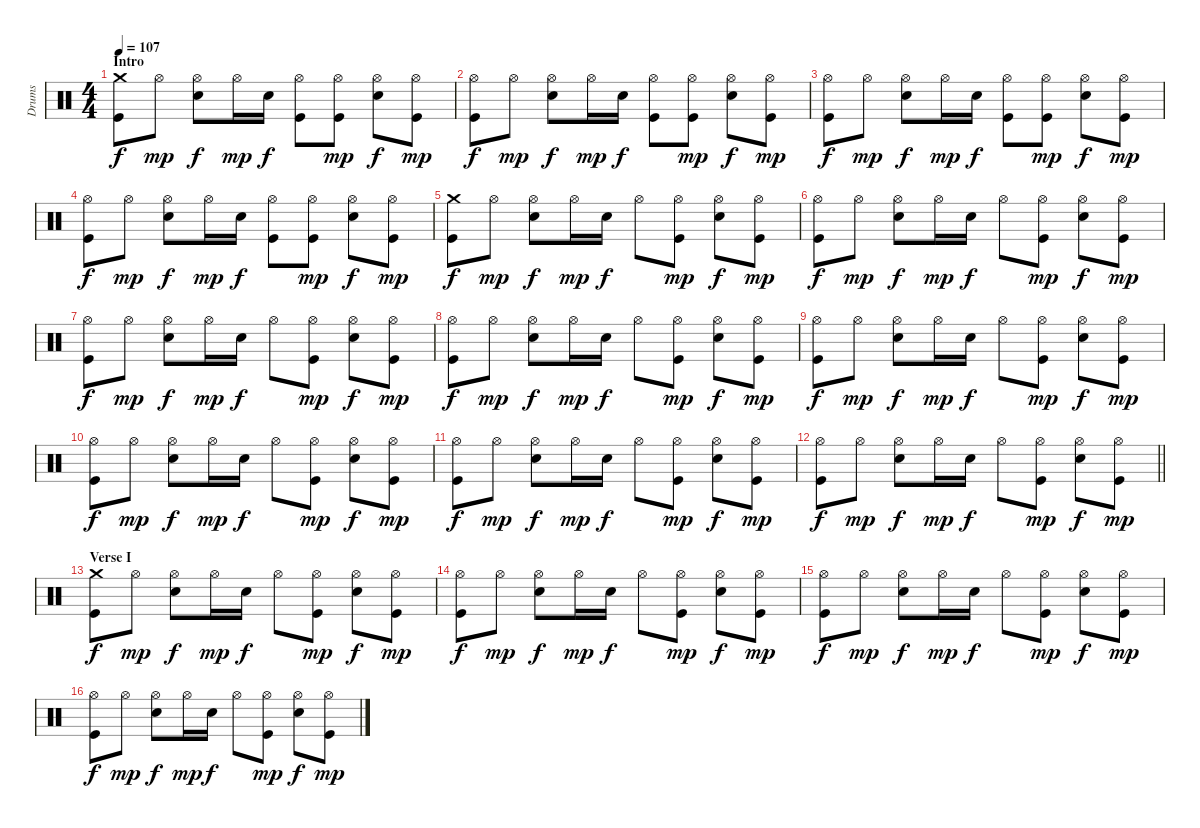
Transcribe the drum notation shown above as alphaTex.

\track ("Drums" "Drums") {instrument percussion}
\staff {score}
\articulation defaults
\ts (4 4)
\section ("" "Intro")
\tempo 107
\clef neutral
\ks c
("Crash medium (hit)" "Kick (hit)").8{dy f} "Hi-Hat (open)".8{dy mp} ("Hi-Hat (open)" "Electric Snare (hit)").8{dy f} "Hi-Hat (open)".16{dy mp} "Electric Snare (hit)".16{dy f} ("Hi-Hat (open)" "Kick (hit)").8 ("Hi-Hat (open)" "Kick (hit)").8{dy mp} ("Hi-Hat (open)" "Electric Snare (hit)").8{dy f} ("Hi-Hat (open)" "Kick (hit)").8{dy mp} |
("Hi-Hat (open)" "Kick (hit)").8{dy f} "Hi-Hat (open)".8{dy mp} ("Hi-Hat (open)" "Electric Snare (hit)").8{dy f} "Hi-Hat (open)".16{dy mp} "Electric Snare (hit)".16{dy f} ("Hi-Hat (open)" "Kick (hit)").8 ("Hi-Hat (open)" "Kick (hit)").8{dy mp} ("Hi-Hat (open)" "Electric Snare (hit)").8{dy f} ("Hi-Hat (open)" "Kick (hit)").8{dy mp} |
("Hi-Hat (open)" "Kick (hit)").8{dy f} "Hi-Hat (open)".8{dy mp} ("Hi-Hat (open)" "Electric Snare (hit)").8{dy f} "Hi-Hat (open)".16{dy mp} "Electric Snare (hit)".16{dy f} ("Hi-Hat (open)" "Kick (hit)").8 ("Hi-Hat (open)" "Kick (hit)").8{dy mp} ("Hi-Hat (open)" "Electric Snare (hit)").8{dy f} ("Hi-Hat (open)" "Kick (hit)").8{dy mp} |
("Hi-Hat (open)" "Kick (hit)").8{dy f} "Hi-Hat (open)".8{dy mp} ("Hi-Hat (open)" "Electric Snare (hit)").8{dy f} "Hi-Hat (open)".16{dy mp} "Electric Snare (hit)".16{dy f} ("Hi-Hat (open)" "Kick (hit)").8 ("Hi-Hat (open)" "Kick (hit)").8{dy mp} ("Hi-Hat (open)" "Electric Snare (hit)").8{dy f} ("Hi-Hat (open)" "Kick (hit)").8{dy mp} |
("Crash medium (hit)" "Kick (hit)").8{dy f} "Hi-Hat (open)".8{dy mp} ("Hi-Hat (open)" "Electric Snare (hit)").8{dy f} "Hi-Hat (open)".16{dy mp} "Electric Snare (hit)".16{dy f} "Hi-Hat (open)".8 ("Hi-Hat (open)" "Kick (hit)").8{dy mp} ("Hi-Hat (open)" "Electric Snare (hit)").8{dy f} ("Hi-Hat (open)" "Kick (hit)").8{dy mp} |
("Hi-Hat (open)" "Kick (hit)").8{dy f} "Hi-Hat (open)".8{dy mp} ("Hi-Hat (open)" "Electric Snare (hit)").8{dy f} "Hi-Hat (open)".16{dy mp} "Electric Snare (hit)".16{dy f} "Hi-Hat (open)".8 ("Hi-Hat (open)" "Kick (hit)").8{dy mp} ("Hi-Hat (open)" "Electric Snare (hit)").8{dy f} ("Hi-Hat (open)" "Kick (hit)").8{dy mp} |
("Hi-Hat (open)" "Kick (hit)").8{dy f} "Hi-Hat (open)".8{dy mp} ("Hi-Hat (open)" "Electric Snare (hit)").8{dy f} "Hi-Hat (open)".16{dy mp} "Electric Snare (hit)".16{dy f} "Hi-Hat (open)".8 ("Hi-Hat (open)" "Kick (hit)").8{dy mp} ("Hi-Hat (open)" "Electric Snare (hit)").8{dy f} ("Hi-Hat (open)" "Kick (hit)").8{dy mp} |
("Hi-Hat (open)" "Kick (hit)").8{dy f} "Hi-Hat (open)".8{dy mp} ("Hi-Hat (open)" "Electric Snare (hit)").8{dy f} "Hi-Hat (open)".16{dy mp} "Electric Snare (hit)".16{dy f} "Hi-Hat (open)".8 ("Hi-Hat (open)" "Kick (hit)").8{dy mp} ("Hi-Hat (open)" "Electric Snare (hit)").8{dy f} ("Hi-Hat (open)" "Kick (hit)").8{dy mp} |
("Hi-Hat (open)" "Kick (hit)").8{dy f} "Hi-Hat (open)".8{dy mp} ("Hi-Hat (open)" "Electric Snare (hit)").8{dy f} "Hi-Hat (open)".16{dy mp} "Electric Snare (hit)".16{dy f} "Hi-Hat (open)".8 ("Hi-Hat (open)" "Kick (hit)").8{dy mp} ("Hi-Hat (open)" "Electric Snare (hit)").8{dy f} ("Hi-Hat (open)" "Kick (hit)").8{dy mp} |
("Hi-Hat (open)" "Kick (hit)").8{dy f} "Hi-Hat (open)".8{dy mp} ("Hi-Hat (open)" "Electric Snare (hit)").8{dy f} "Hi-Hat (open)".16{dy mp} "Electric Snare (hit)".16{dy f} "Hi-Hat (open)".8 ("Hi-Hat (open)" "Kick (hit)").8{dy mp} ("Hi-Hat (open)" "Electric Snare (hit)").8{dy f} ("Hi-Hat (open)" "Kick (hit)").8{dy mp} |
("Hi-Hat (open)" "Kick (hit)").8{dy f} "Hi-Hat (open)".8{dy mp} ("Hi-Hat (open)" "Electric Snare (hit)").8{dy f} "Hi-Hat (open)".16{dy mp} "Electric Snare (hit)".16{dy f} "Hi-Hat (open)".8 ("Hi-Hat (open)" "Kick (hit)").8{dy mp} ("Hi-Hat (open)" "Electric Snare (hit)").8{dy f} ("Hi-Hat (open)" "Kick (hit)").8{dy mp} |
\barLineRight lightlight
("Hi-Hat (open)" "Kick (hit)").8{dy f} "Hi-Hat (open)".8{dy mp} ("Hi-Hat (open)" "Electric Snare (hit)").8{dy f} "Hi-Hat (open)".16{dy mp} "Electric Snare (hit)".16{dy f} "Hi-Hat (open)".8 ("Hi-Hat (open)" "Kick (hit)").8{dy mp} ("Hi-Hat (open)" "Electric Snare (hit)").8{dy f} ("Hi-Hat (open)" "Kick (hit)").8{dy mp} |
\section ("" "Verse I")
("Crash medium (hit)" "Kick (hit)").8{dy f} "Hi-Hat (open)".8{dy mp} ("Hi-Hat (open)" "Electric Snare (hit)").8{dy f} "Hi-Hat (open)".16{dy mp} "Electric Snare (hit)".16{dy f} "Hi-Hat (open)".8 ("Hi-Hat (open)" "Kick (hit)").8{dy mp} ("Hi-Hat (open)" "Electric Snare (hit)").8{dy f} ("Hi-Hat (open)" "Kick (hit)").8{dy mp} |
("Hi-Hat (open)" "Kick (hit)").8{dy f} "Hi-Hat (open)".8{dy mp} ("Hi-Hat (open)" "Electric Snare (hit)").8{dy f} "Hi-Hat (open)".16{dy mp} "Electric Snare (hit)".16{dy f} "Hi-Hat (open)".8 ("Hi-Hat (open)" "Kick (hit)").8{dy mp} ("Hi-Hat (open)" "Electric Snare (hit)").8{dy f} ("Hi-Hat (open)" "Kick (hit)").8{dy mp} |
("Hi-Hat (open)" "Kick (hit)").8{dy f} "Hi-Hat (open)".8{dy mp} ("Hi-Hat (open)" "Electric Snare (hit)").8{dy f} "Hi-Hat (open)".16{dy mp} "Electric Snare (hit)".16{dy f} "Hi-Hat (open)".8 ("Hi-Hat (open)" "Kick (hit)").8{dy mp} ("Hi-Hat (open)" "Electric Snare (hit)").8{dy f} ("Hi-Hat (open)" "Kick (hit)").8{dy mp} |
("Hi-Hat (open)" "Kick (hit)").8{dy f} "Hi-Hat (open)".8{dy mp} ("Hi-Hat (open)" "Electric Snare (hit)").8{dy f} "Hi-Hat (open)".16{dy mp} "Electric Snare (hit)".16{dy f} "Hi-Hat (open)".8 ("Hi-Hat (open)" "Kick (hit)").8{dy mp} ("Hi-Hat (open)" "Electric Snare (hit)").8{dy f} ("Hi-Hat (open)" "Kick (hit)").8{dy mp}
